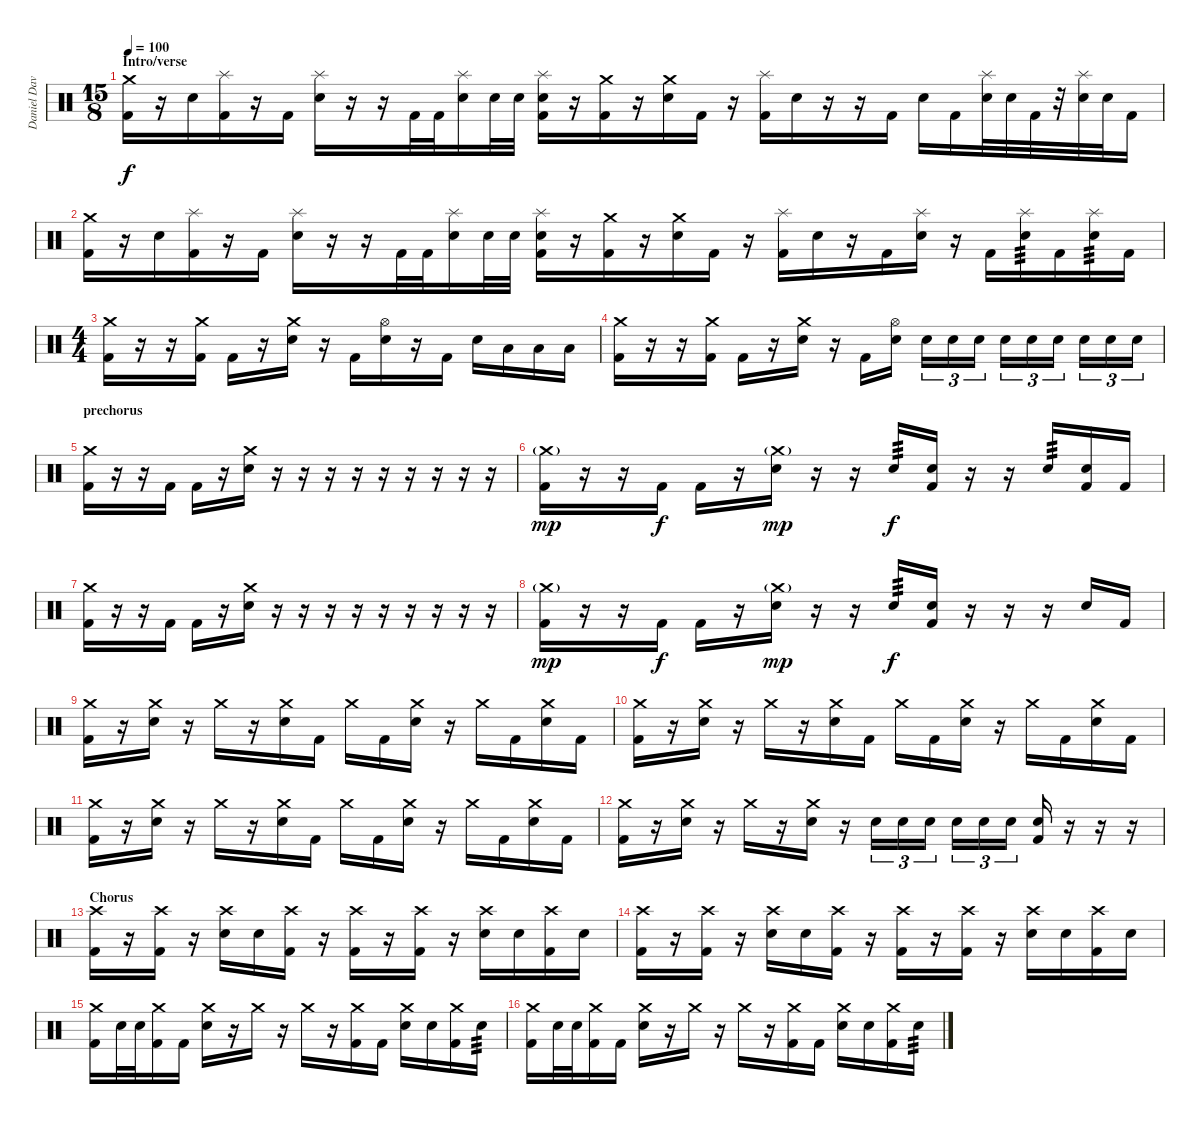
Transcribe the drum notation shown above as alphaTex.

\track ("Daniel Davison" "Daniel Dav") {instrument percussion}
\staff {score}
\articulation defaults
\ts (15 8)
\section ("" "Intro/verse")
\tempo 100
\clef neutral
\ks c
("Crash medium (hit)" "Kick (hit) 2").16{dy f} r.16 "Electric Snare (hit)".16 ("Splash (hit)" "Kick (hit) 2").16 r.16 "Kick (hit) 2".16 ("Splash (hit)" "Electric Snare (hit)").16 r.16 r.16 "Kick (hit) 2".32 "Kick (hit) 2".32 ("Splash (hit)" "Electric Snare (hit)").16 "Electric Snare (hit)".32 "Electric Snare (hit)".32 ("Splash (hit)" "Electric Snare (hit)" "Kick (hit) 2").16 r.16 ("Crash medium (hit)" "Kick (hit) 2").16 r.16 ("Crash medium (hit)" "Electric Snare (hit)").16 "Kick (hit) 2".16 r.16 ("Splash (hit)" "Kick (hit) 2").16 "Electric Snare (hit)".16 r.16 r.16 "Kick (hit) 2".16 "Electric Snare (hit)".16 "Kick (hit) 2".16 ("Splash (hit)" "Electric Snare (hit)").32 "Electric Snare (hit)".32 "Kick (hit) 2".32 r.32 ("Splash (hit)" "Electric Snare (hit)").32 "Electric Snare (hit)".32 "Kick (hit) 2".16 |
("Crash medium (hit)" "Kick (hit) 2").16 r.16 "Electric Snare (hit)".16 ("Splash (hit)" "Kick (hit) 2").16 r.16 "Kick (hit) 2".16 ("Splash (hit)" "Electric Snare (hit)").16 r.16 r.16 "Kick (hit) 2".32 "Kick (hit) 2".32 ("Splash (hit)" "Electric Snare (hit)").16 "Electric Snare (hit)".32 "Electric Snare (hit)".32 ("Splash (hit)" "Electric Snare (hit)" "Kick (hit) 2").16 r.16 ("Crash medium (hit)" "Kick (hit) 2").16 r.16 ("Crash medium (hit)" "Electric Snare (hit)").16 "Kick (hit) 2".16 r.16 ("Splash (hit)" "Kick (hit) 2").16 "Electric Snare (hit)".16 r.16 "Kick (hit) 2".16 ("Splash (hit)" "Electric Snare (hit)").16 r.16 "Kick (hit) 2".16 ("Splash (hit)" "Electric Snare (hit)").16{tp 3} "Kick (hit) 2".16 ("Splash (hit)" "Electric Snare (hit)").16{tp 3} "Kick (hit) 2".16 |
\ts (4 4)
("Crash medium (hit)" "Kick (hit) 2").16 r.16 r.16 ("Crash medium (hit)" "Kick (hit) 2").16 "Kick (hit) 2".16 r.16 ("Crash medium (hit)" "Electric Snare (hit)").16 r.16 "Kick (hit) 2".16 ("Hi-Hat (open)" "Electric Snare (hit)").16 r.16 "Kick (hit) 2".16 "Electric Snare (hit)".16 "Low Tom (hit)".16 "Low Tom (hit)".16 "Low Tom (hit)".16 |
("Crash medium (hit)" "Kick (hit) 2").16 r.16 r.16 ("Crash medium (hit)" "Kick (hit) 2").16 "Kick (hit) 2".16 r.16 ("Crash medium (hit)" "Electric Snare (hit)").16 r.16 "Kick (hit) 2".16 ("Hi-Hat (open)" "Electric Snare (hit)").16 "Electric Snare (hit)".16{tu (3 2)} "Electric Snare (hit)".16{tu (3 2)} "Electric Snare (hit)".16{tu (3 2)} "Electric Snare (hit)".16{tu (3 2)} "Electric Snare (hit)".16{tu (3 2)} "Electric Snare (hit)".16{tu (3 2)} "Electric Snare (hit)".16{tu (3 2)} "Electric Snare (hit)".16{tu (3 2)} "Electric Snare (hit)".16{tu (3 2)} |
\section ("" "prechorus")
("Crash medium (hit)" "Kick (hit) 2").16 r.16 r.16 "Kick (hit) 2".16 "Kick (hit) 2".16 r.16 ("Crash medium (hit)" "Electric Snare (hit)").16 r.16 r.16 r.16 r.16 r.16 r.16 r.16 r.16 r.16 |
("Crash medium (hit)"{g} "Kick (hit) 2").16{dy mp} r.16 r.16 "Kick (hit) 2".16{dy f} "Kick (hit) 2".16 r.16 ("Crash medium (hit)"{g} "Electric Snare (hit)").16{dy mp} r.16 r.16 "Electric Snare (hit)".16{tp 3 dy f} ("Electric Snare (hit)" "Kick (hit) 2").16 r.16 r.16 "Electric Snare (hit)".16{tp 3} ("Electric Snare (hit)" "Kick (hit) 2").16 "Kick (hit) 2".16 |
("Crash medium (hit)" "Kick (hit) 2").16 r.16 r.16 "Kick (hit) 2".16 "Kick (hit) 2".16 r.16 ("Crash medium (hit)" "Electric Snare (hit)").16 r.16 r.16 r.16 r.16 r.16 r.16 r.16 r.16 r.16 |
("Crash medium (hit)"{g} "Kick (hit) 2").16{dy mp} r.16 r.16 "Kick (hit) 2".16{dy f} "Kick (hit) 2".16 r.16 ("Crash medium (hit)"{g} "Electric Snare (hit)").16{dy mp} r.16 r.16 "Electric Snare (hit)".16{tp 3 dy f} ("Electric Snare (hit)" "Kick (hit) 2").16 r.16 r.16 r.16 "Electric Snare (hit)".16 "Kick (hit) 2".16 |
("Crash medium (hit)" "Kick (hit) 2").16 r.16 ("Crash medium (hit)" "Electric Snare (hit)").16 r.16 "Crash medium (hit)".16 r.16 ("Crash medium (hit)" "Electric Snare (hit)").16 "Kick (hit) 2".16 "Crash medium (hit)".16 "Kick (hit) 2".16 ("Crash medium (hit)" "Electric Snare (hit)").16 r.16 "Crash medium (hit)".16 "Kick (hit) 2".16 ("Crash medium (hit)" "Electric Snare (hit)").16 "Kick (hit) 2".16 |
("Crash medium (hit)" "Kick (hit) 2").16 r.16 ("Crash medium (hit)" "Electric Snare (hit)").16 r.16 "Crash medium (hit)".16 r.16 ("Crash medium (hit)" "Electric Snare (hit)").16 "Kick (hit) 2".16 "Crash medium (hit)".16 "Kick (hit) 2".16 ("Crash medium (hit)" "Electric Snare (hit)").16 r.16 "Crash medium (hit)".16 "Kick (hit) 2".16 ("Crash medium (hit)" "Electric Snare (hit)").16 "Kick (hit) 2".16 |
("Crash medium (hit)" "Kick (hit) 2").16 r.16 ("Crash medium (hit)" "Electric Snare (hit)").16 r.16 "Crash medium (hit)".16 r.16 ("Crash medium (hit)" "Electric Snare (hit)").16 "Kick (hit) 2".16 "Crash medium (hit)".16 "Kick (hit) 2".16 ("Crash medium (hit)" "Electric Snare (hit)").16 r.16 "Crash medium (hit)".16 "Kick (hit) 2".16 ("Crash medium (hit)" "Electric Snare (hit)").16 "Kick (hit) 2".16 |
("Crash medium (hit)" "Kick (hit) 2").16 r.16 ("Crash medium (hit)" "Electric Snare (hit)").16 r.16 "Crash medium (hit)".16 r.16 ("Crash medium (hit)" "Electric Snare (hit)").16 r.16 "Electric Snare (hit)".16{tu (3 2)} "Electric Snare (hit)".16{tu (3 2)} "Electric Snare (hit)".16{tu (3 2)} "Electric Snare (hit)".16{tu (3 2)} "Electric Snare (hit)".16{tu (3 2)} "Electric Snare (hit)".16{tu (3 2)} ("Electric Snare (hit)" "Kick (hit) 2").16 r.16 r.16{volume 1} r.16 |
\section ("" "Chorus")
("Crash high (hit)" "Kick (hit) 2").16{volume 13} r.16 ("Crash high (hit)" "Kick (hit) 2").16 r.16 ("Crash high (hit)" "Electric Snare (hit)").16 "Electric Snare (hit)".16 ("Crash high (hit)" "Kick (hit) 2").16 r.16 ("Crash high (hit)" "Kick (hit) 2").16 r.16 ("Crash high (hit)" "Kick (hit) 2").16 r.16 ("Crash high (hit)" "Electric Snare (hit)").16 "Electric Snare (hit)".16 ("Crash high (hit)" "Kick (hit) 2").16 "Electric Snare (hit)".16 |
("Crash high (hit)" "Kick (hit) 2").16{volume 13} r.16 ("Crash high (hit)" "Kick (hit) 2").16 r.16 ("Crash high (hit)" "Electric Snare (hit)").16 "Electric Snare (hit)".16 ("Crash high (hit)" "Kick (hit) 2").16 r.16 ("Crash high (hit)" "Kick (hit) 2").16 r.16 ("Crash high (hit)" "Kick (hit) 2").16 r.16 ("Crash high (hit)" "Electric Snare (hit)").16 "Electric Snare (hit)".16 ("Crash high (hit)" "Kick (hit) 2").16 "Electric Snare (hit)".16 |
("Crash medium (hit)" "Kick (hit) 2").16 "Electric Snare (hit)".32 "Electric Snare (hit)".32 ("Crash medium (hit)" "Kick (hit) 2").16 "Kick (hit) 2".16 ("Crash medium (hit)" "Electric Snare (hit)").16 r.16 "Crash medium (hit)".16 r.16 "Crash medium (hit)".16 r.16 ("Crash medium (hit)" "Kick (hit) 2").16 "Kick (hit) 2".16 ("Crash medium (hit)" "Electric Snare (hit)").16 "Electric Snare (hit)".16 ("Crash medium (hit)" "Kick (hit) 2").16 "Electric Snare (hit)".16{tp 3} |
("Crash medium (hit)" "Kick (hit) 2").16 "Electric Snare (hit)".32 "Electric Snare (hit)".32 ("Crash medium (hit)" "Kick (hit) 2").16 "Kick (hit) 2".16 ("Crash medium (hit)" "Electric Snare (hit)").16 r.16 "Crash medium (hit)".16 r.16 "Crash medium (hit)".16 r.16 ("Crash medium (hit)" "Kick (hit) 2").16 "Kick (hit) 2".16 ("Crash medium (hit)" "Electric Snare (hit)").16 "Electric Snare (hit)".16 ("Crash medium (hit)" "Kick (hit) 2").16 "Electric Snare (hit)".16{tp 3}
